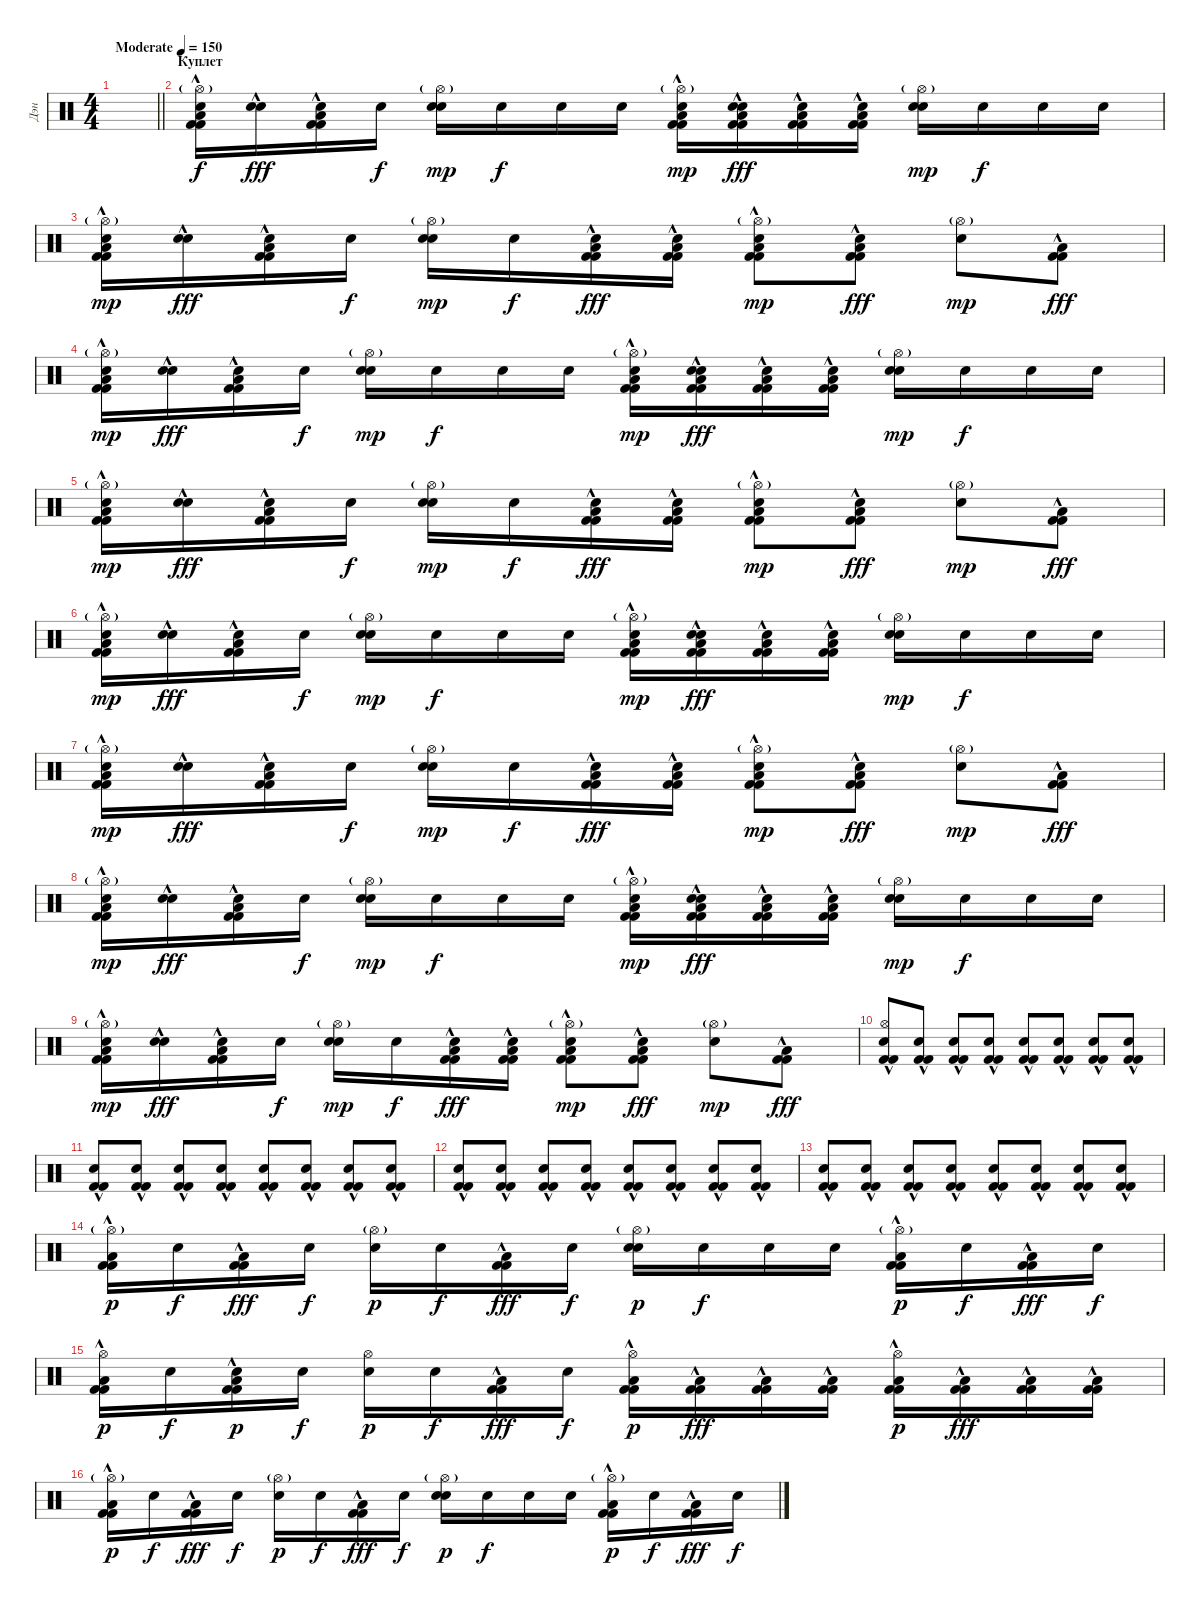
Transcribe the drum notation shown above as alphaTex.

\track ("Дэн" "Дэн") {instrument percussion}
\staff {score}
\articulation defaults
\ts (4 4)
\tempo (150 "Moderate")
\clef neutral
\barLineRight lightlight
\ks c
|
\section ("" "Куплет")
("Snare (hit)"{hac} "Kick (hit) 2"{hac} "Kick (hit) 2"{hac} "Low Floor Tom (hit)" "Hi-Hat (open)"{g}).16 ("Snare (hit)"{hac} "Snare (hit)").16{dy fff} ("Snare (hit)"{hac} "Kick (hit) 2"{hac} "Kick (hit) 2"{hac} "Low Floor Tom (hit)").16 "Snare (hit)".16{dy f} ("Snare (hit)" "Electric Snare (hit)" "Hi-Hat (open)"{g}).16{dy mp} "Snare (hit)".16{dy f} "Snare (hit)".16 "Snare (hit)".16 ("Snare (hit)" "Low Floor Tom (hit)" "Kick (hit) 2"{hac} "Kick (hit) 2"{hac} "Hi-Hat (open)"{g}).16{dy mp} ("Snare (hit)" "Low Floor Tom (hit)" "Kick (hit) 2"{hac} "Kick (hit) 2"{hac} "Snare (hit)").16{dy fff} ("Snare (hit)" "Low Floor Tom (hit)" "Kick (hit) 2"{hac} "Kick (hit) 2"{hac}).16 ("Snare (hit)" "Low Floor Tom (hit)" "Kick (hit) 2"{hac} "Kick (hit) 2"{hac}).16 ("Snare (hit)" "Electric Snare (hit)" "Hi-Hat (open)"{g}).16{dy mp} "Snare (hit)".16{dy f} "Snare (hit)".16 "Snare (hit)".16 |
("Snare (hit)"{hac} "Kick (hit) 2"{hac} "Kick (hit) 2"{hac} "Low Floor Tom (hit)" "Hi-Hat (open)"{g}).16{dy mp} ("Snare (hit)"{hac} "Snare (hit)").16{dy fff} ("Snare (hit)"{hac} "Kick (hit) 2"{hac} "Kick (hit) 2"{hac} "Low Floor Tom (hit)").16 "Snare (hit)".16{dy f} ("Snare (hit)" "Electric Snare (hit)" "Hi-Hat (open)"{g}).16{dy mp} "Snare (hit)".16{dy f} ("Snare (hit)" "Low Floor Tom (hit)" "Kick (hit) 2"{hac} "Kick (hit) 2"{hac}).16{dy fff} ("Snare (hit)" "Low Floor Tom (hit)" "Kick (hit) 2"{hac} "Kick (hit) 2"{hac}).16 ("Snare (hit)" "Low Floor Tom (hit)" "Kick (hit) 2"{hac} "Kick (hit) 2"{hac} "Hi-Hat (open)"{g}).8{dy mp} ("Snare (hit)" "Low Floor Tom (hit)" "Kick (hit) 2"{hac} "Kick (hit) 2"{hac}).8{dy fff} ("Electric Snare (hit)" "Hi-Hat (open)"{g}).8{dy mp} ("Kick (hit) 2"{hac} "Kick (hit) 2"{hac} "Low Floor Tom (hit)").8{dy fff} |
("Snare (hit)"{hac} "Kick (hit) 2"{hac} "Kick (hit) 2"{hac} "Low Floor Tom (hit)" "Hi-Hat (open)"{g}).16{dy mp} ("Snare (hit)"{hac} "Snare (hit)").16{dy fff} ("Snare (hit)"{hac} "Kick (hit) 2"{hac} "Kick (hit) 2"{hac} "Low Floor Tom (hit)").16 "Snare (hit)".16{dy f} ("Snare (hit)" "Electric Snare (hit)" "Hi-Hat (open)"{g}).16{dy mp} "Snare (hit)".16{dy f} "Snare (hit)".16 "Snare (hit)".16 ("Snare (hit)" "Low Floor Tom (hit)" "Kick (hit) 2"{hac} "Kick (hit) 2"{hac} "Hi-Hat (open)"{g}).16{dy mp} ("Snare (hit)" "Low Floor Tom (hit)" "Kick (hit) 2"{hac} "Kick (hit) 2"{hac} "Snare (hit)").16{dy fff} ("Snare (hit)" "Low Floor Tom (hit)" "Kick (hit) 2"{hac} "Kick (hit) 2"{hac}).16 ("Snare (hit)" "Low Floor Tom (hit)" "Kick (hit) 2"{hac} "Kick (hit) 2"{hac}).16 ("Snare (hit)" "Electric Snare (hit)" "Hi-Hat (open)"{g}).16{dy mp} "Snare (hit)".16{dy f} "Snare (hit)".16 "Snare (hit)".16 |
("Snare (hit)"{hac} "Kick (hit) 2"{hac} "Kick (hit) 2"{hac} "Low Floor Tom (hit)" "Hi-Hat (open)"{g}).16{dy mp} ("Snare (hit)"{hac} "Snare (hit)").16{dy fff} ("Snare (hit)"{hac} "Kick (hit) 2"{hac} "Kick (hit) 2"{hac} "Low Floor Tom (hit)").16 "Snare (hit)".16{dy f} ("Snare (hit)" "Electric Snare (hit)" "Hi-Hat (open)"{g}).16{dy mp} "Snare (hit)".16{dy f} ("Snare (hit)" "Low Floor Tom (hit)" "Kick (hit) 2"{hac} "Kick (hit) 2"{hac}).16{dy fff} ("Snare (hit)" "Low Floor Tom (hit)" "Kick (hit) 2"{hac} "Kick (hit) 2"{hac}).16 ("Snare (hit)" "Low Floor Tom (hit)" "Kick (hit) 2"{hac} "Kick (hit) 2"{hac} "Hi-Hat (open)"{g}).8{dy mp} ("Snare (hit)" "Low Floor Tom (hit)" "Kick (hit) 2"{hac} "Kick (hit) 2"{hac}).8{dy fff} ("Electric Snare (hit)" "Hi-Hat (open)"{g}).8{dy mp} ("Kick (hit) 2"{hac} "Kick (hit) 2"{hac} "Low Floor Tom (hit)").8{dy fff} |
("Snare (hit)"{hac} "Kick (hit) 2"{hac} "Kick (hit) 2"{hac} "Low Floor Tom (hit)" "Hi-Hat (open)"{g}).16{dy mp} ("Snare (hit)"{hac} "Snare (hit)").16{dy fff} ("Snare (hit)"{hac} "Kick (hit) 2"{hac} "Kick (hit) 2"{hac} "Low Floor Tom (hit)").16 "Snare (hit)".16{dy f} ("Snare (hit)" "Electric Snare (hit)" "Hi-Hat (open)"{g}).16{dy mp} "Snare (hit)".16{dy f} "Snare (hit)".16 "Snare (hit)".16 ("Snare (hit)" "Low Floor Tom (hit)" "Kick (hit) 2"{hac} "Kick (hit) 2"{hac} "Hi-Hat (open)"{g}).16{dy mp} ("Snare (hit)" "Low Floor Tom (hit)" "Kick (hit) 2"{hac} "Kick (hit) 2"{hac} "Snare (hit)").16{dy fff} ("Snare (hit)" "Low Floor Tom (hit)" "Kick (hit) 2"{hac} "Kick (hit) 2"{hac}).16 ("Snare (hit)" "Low Floor Tom (hit)" "Kick (hit) 2"{hac} "Kick (hit) 2"{hac}).16 ("Snare (hit)" "Electric Snare (hit)" "Hi-Hat (open)"{g}).16{dy mp} "Snare (hit)".16{dy f} "Snare (hit)".16 "Snare (hit)".16 |
("Snare (hit)"{hac} "Kick (hit) 2"{hac} "Kick (hit) 2"{hac} "Low Floor Tom (hit)" "Hi-Hat (open)"{g}).16{dy mp} ("Snare (hit)"{hac} "Snare (hit)").16{dy fff} ("Snare (hit)"{hac} "Kick (hit) 2"{hac} "Kick (hit) 2"{hac} "Low Floor Tom (hit)").16 "Snare (hit)".16{dy f} ("Snare (hit)" "Electric Snare (hit)" "Hi-Hat (open)"{g}).16{dy mp} "Snare (hit)".16{dy f} ("Snare (hit)" "Low Floor Tom (hit)" "Kick (hit) 2"{hac} "Kick (hit) 2"{hac}).16{dy fff} ("Snare (hit)" "Low Floor Tom (hit)" "Kick (hit) 2"{hac} "Kick (hit) 2"{hac}).16 ("Snare (hit)" "Low Floor Tom (hit)" "Kick (hit) 2"{hac} "Kick (hit) 2"{hac} "Hi-Hat (open)"{g}).8{dy mp} ("Snare (hit)" "Low Floor Tom (hit)" "Kick (hit) 2"{hac} "Kick (hit) 2"{hac}).8{dy fff} ("Electric Snare (hit)" "Hi-Hat (open)"{g}).8{dy mp} ("Kick (hit) 2"{hac} "Kick (hit) 2"{hac} "Low Floor Tom (hit)").8{dy fff} |
("Snare (hit)"{hac} "Kick (hit) 2"{hac} "Kick (hit) 2"{hac} "Low Floor Tom (hit)" "Hi-Hat (open)"{g}).16{dy mp} ("Snare (hit)"{hac} "Snare (hit)").16{dy fff} ("Snare (hit)"{hac} "Kick (hit) 2"{hac} "Kick (hit) 2"{hac} "Low Floor Tom (hit)").16 "Snare (hit)".16{dy f} ("Snare (hit)" "Electric Snare (hit)" "Hi-Hat (open)"{g}).16{dy mp} "Snare (hit)".16{dy f} "Snare (hit)".16 "Snare (hit)".16 ("Snare (hit)" "Low Floor Tom (hit)" "Kick (hit) 2"{hac} "Kick (hit) 2"{hac} "Hi-Hat (open)"{g}).16{dy mp} ("Snare (hit)" "Low Floor Tom (hit)" "Kick (hit) 2"{hac} "Kick (hit) 2"{hac} "Snare (hit)").16{dy fff} ("Snare (hit)" "Low Floor Tom (hit)" "Kick (hit) 2"{hac} "Kick (hit) 2"{hac}).16 ("Snare (hit)" "Low Floor Tom (hit)" "Kick (hit) 2"{hac} "Kick (hit) 2"{hac}).16 ("Snare (hit)" "Electric Snare (hit)" "Hi-Hat (open)"{g}).16{dy mp} "Snare (hit)".16{dy f} "Snare (hit)".16 "Snare (hit)".16 |
("Snare (hit)"{hac} "Kick (hit) 2"{hac} "Kick (hit) 2"{hac} "Low Floor Tom (hit)" "Hi-Hat (open)"{g}).16{dy mp} ("Snare (hit)"{hac} "Snare (hit)").16{dy fff} ("Snare (hit)"{hac} "Kick (hit) 2"{hac} "Kick (hit) 2"{hac} "Low Floor Tom (hit)").16 "Snare (hit)".16{dy f} ("Snare (hit)" "Electric Snare (hit)" "Hi-Hat (open)"{g}).16{dy mp} "Snare (hit)".16{dy f} ("Snare (hit)" "Low Floor Tom (hit)" "Kick (hit) 2"{hac} "Kick (hit) 2"{hac}).16{dy fff} ("Snare (hit)" "Low Floor Tom (hit)" "Kick (hit) 2"{hac} "Kick (hit) 2"{hac}).16 ("Snare (hit)" "Low Floor Tom (hit)" "Kick (hit) 2"{hac} "Kick (hit) 2"{hac} "Hi-Hat (open)"{g}).8{dy mp} ("Snare (hit)" "Low Floor Tom (hit)" "Kick (hit) 2"{hac} "Kick (hit) 2"{hac}).8{dy fff} ("Electric Snare (hit)" "Hi-Hat (open)"{g}).8{dy mp} ("Kick (hit) 2"{hac} "Kick (hit) 2"{hac} "Low Floor Tom (hit)").8{dy fff} |
("Electric Snare (hit)" "Kick (hit) 2"{hac} "Kick (hit) 2"{hac} "Hi-Hat (open)").8 ("Electric Snare (hit)" "Kick (hit) 2"{hac} "Kick (hit) 2"{hac}).8 ("Electric Snare (hit)" "Kick (hit) 2"{hac} "Kick (hit) 2"{hac}).8 ("Electric Snare (hit)" "Kick (hit) 2"{hac} "Kick (hit) 2"{hac}).8 ("Electric Snare (hit)" "Kick (hit) 2"{hac} "Kick (hit) 2"{hac}).8 ("Electric Snare (hit)" "Kick (hit) 2"{hac} "Kick (hit) 2"{hac}).8 ("Electric Snare (hit)" "Kick (hit) 2"{hac} "Kick (hit) 2"{hac}).8 ("Electric Snare (hit)" "Kick (hit) 2"{hac} "Kick (hit) 2"{hac}).8 |
("Electric Snare (hit)" "Kick (hit) 2"{hac} "Kick (hit) 2"{hac}).8 ("Electric Snare (hit)" "Kick (hit) 2"{hac} "Kick (hit) 2"{hac}).8 ("Electric Snare (hit)" "Kick (hit) 2"{hac} "Kick (hit) 2"{hac}).8 ("Electric Snare (hit)" "Kick (hit) 2"{hac} "Kick (hit) 2"{hac}).8 ("Electric Snare (hit)" "Kick (hit) 2"{hac} "Kick (hit) 2"{hac}).8 ("Electric Snare (hit)" "Kick (hit) 2"{hac} "Kick (hit) 2"{hac}).8 ("Electric Snare (hit)" "Kick (hit) 2"{hac} "Kick (hit) 2"{hac}).8 ("Electric Snare (hit)" "Kick (hit) 2"{hac} "Kick (hit) 2"{hac}).8 |
("Electric Snare (hit)" "Kick (hit) 2"{hac} "Kick (hit) 2"{hac}).8 ("Electric Snare (hit)" "Kick (hit) 2"{hac} "Kick (hit) 2"{hac}).8 ("Electric Snare (hit)" "Kick (hit) 2"{hac} "Kick (hit) 2"{hac}).8 ("Electric Snare (hit)" "Kick (hit) 2"{hac} "Kick (hit) 2"{hac}).8 ("Electric Snare (hit)" "Kick (hit) 2"{hac} "Kick (hit) 2"{hac}).8 ("Electric Snare (hit)" "Kick (hit) 2"{hac} "Kick (hit) 2"{hac}).8 ("Electric Snare (hit)" "Kick (hit) 2"{hac} "Kick (hit) 2"{hac}).8 ("Electric Snare (hit)" "Kick (hit) 2"{hac} "Kick (hit) 2"{hac}).8 |
("Electric Snare (hit)" "Kick (hit) 2"{hac} "Kick (hit) 2"{hac}).8 ("Electric Snare (hit)" "Kick (hit) 2"{hac} "Kick (hit) 2"{hac}).8 ("Electric Snare (hit)" "Kick (hit) 2"{hac} "Kick (hit) 2"{hac}).8 ("Electric Snare (hit)" "Kick (hit) 2"{hac} "Kick (hit) 2"{hac}).8 ("Electric Snare (hit)" "Kick (hit) 2"{hac} "Kick (hit) 2"{hac}).8 ("Electric Snare (hit)" "Kick (hit) 2"{hac} "Kick (hit) 2"{hac}).8 ("Electric Snare (hit)" "Kick (hit) 2"{hac} "Kick (hit) 2"{hac}).8 ("Electric Snare (hit)" "Kick (hit) 2"{hac} "Kick (hit) 2"{hac}).8 |
("Kick (hit) 2"{hac} "Kick (hit) 2"{hac} "Low Floor Tom (hit)" "Hi-Hat (open)"{g}).16{dy p} "Snare (hit)".16{dy f} ("Kick (hit) 2"{hac} "Kick (hit) 2"{hac} "Low Floor Tom (hit)").16{dy fff} "Snare (hit)".16{dy f} ("Snare (hit)" "Hi-Hat (open)"{g}).16{dy p} "Snare (hit)".16{dy f} ("Low Floor Tom (hit)" "Kick (hit) 2"{hac} "Kick (hit) 2"{hac}).16{dy fff} "Snare (hit)".16{dy f} ("Snare (hit)" "Electric Snare (hit)" "Hi-Hat (open)"{g}).16{dy p} "Snare (hit)".16{dy f} "Snare (hit)".16 "Snare (hit)".16 ("Low Floor Tom (hit)" "Kick (hit) 2"{hac} "Kick (hit) 2"{hac} "Hi-Hat (open)"{g}).16{dy p} "Snare (hit)".16{dy f} ("Low Floor Tom (hit)" "Kick (hit) 2"{hac} "Kick (hit) 2"{hac}).16{dy fff} "Snare (hit)".16{dy f} |
("Kick (hit) 2"{hac} "Kick (hit) 2"{hac} "Low Floor Tom (hit)" "Hi-Hat (open)").16{dy p} "Snare (hit)".16{dy f} ("Kick (hit) 2"{hac} "Kick (hit) 2"{hac} "Low Floor Tom (hit)" "Snare (hit)").16{dy p} "Snare (hit)".16{dy f} ("Snare (hit)" "Hi-Hat (open)").16{dy p} "Snare (hit)".16{dy f} ("Low Floor Tom (hit)" "Kick (hit) 2"{hac} "Kick (hit) 2"{hac}).16{dy fff} "Snare (hit)".16{dy f} ("Kick (hit) 2"{hac} "Kick (hit) 2"{hac} "Low Floor Tom (hit)" "Hi-Hat (open)").16{dy p} ("Kick (hit) 2"{hac} "Kick (hit) 2"{hac} "Low Floor Tom (hit)").16{dy fff} ("Kick (hit) 2"{hac} "Kick (hit) 2"{hac} "Low Floor Tom (hit)").16 ("Kick (hit) 2"{hac} "Kick (hit) 2"{hac} "Low Floor Tom (hit)").16 ("Kick (hit) 2"{hac} "Kick (hit) 2"{hac} "Low Floor Tom (hit)" "Hi-Hat (open)").16{dy p} ("Kick (hit) 2"{hac} "Kick (hit) 2"{hac} "Low Floor Tom (hit)").16{dy fff} ("Kick (hit) 2"{hac} "Kick (hit) 2"{hac} "Low Floor Tom (hit)").16 ("Kick (hit) 2"{hac} "Kick (hit) 2"{hac} "Low Floor Tom (hit)").16 |
("Kick (hit) 2"{hac} "Kick (hit) 2"{hac} "Low Floor Tom (hit)" "Hi-Hat (open)"{g}).16{dy p} "Snare (hit)".16{dy f} ("Kick (hit) 2"{hac} "Kick (hit) 2"{hac} "Low Floor Tom (hit)").16{dy fff} "Snare (hit)".16{dy f} ("Snare (hit)" "Hi-Hat (open)"{g}).16{dy p} "Snare (hit)".16{dy f} ("Low Floor Tom (hit)" "Kick (hit) 2"{hac} "Kick (hit) 2"{hac}).16{dy fff} "Snare (hit)".16{dy f} ("Snare (hit)" "Electric Snare (hit)" "Hi-Hat (open)"{g}).16{dy p} "Snare (hit)".16{dy f} "Snare (hit)".16 "Snare (hit)".16 ("Low Floor Tom (hit)" "Kick (hit) 2"{hac} "Kick (hit) 2"{hac} "Hi-Hat (open)"{g}).16{dy p} "Snare (hit)".16{dy f} ("Low Floor Tom (hit)" "Kick (hit) 2"{hac} "Kick (hit) 2"{hac}).16{dy fff} "Snare (hit)".16{dy f}
